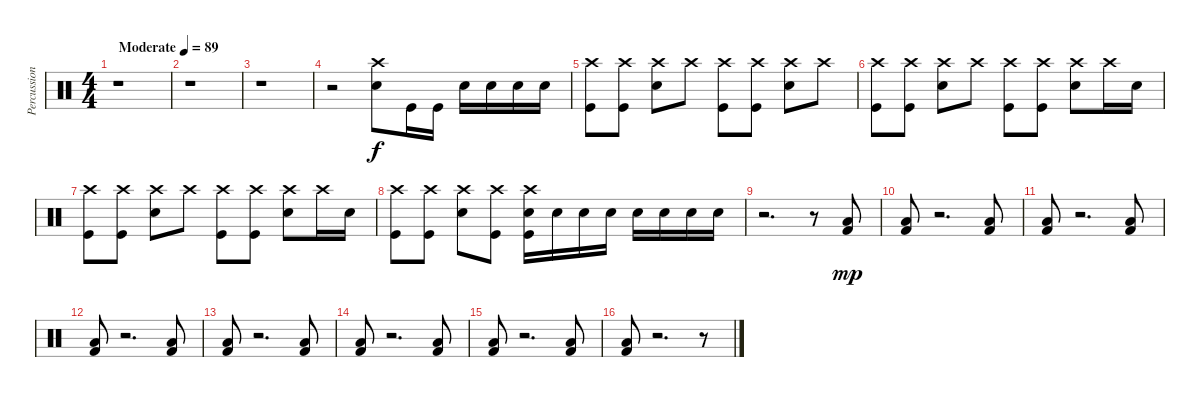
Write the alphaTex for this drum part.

\track ("Percussion" "Percussion") {instrument percussion}
\staff {score}
\articulation defaults
\ts (4 4)
\tempo (89 "Moderate")
\clef neutral
\ks c
r.1{dy f} |
r.1 |
r.1 |
r.2 ("Crash high (hit)" "Electric Snare (hit)").8 "Kick (hit)".16 "Kick (hit)".16 "Electric Snare (hit)".16 "Electric Snare (hit)".16 "Electric Snare (hit)".16 "Electric Snare (hit)".16 |
("Crash high (hit)" "Kick (hit)").8 ("Crash high (hit)" "Kick (hit)").8 ("Crash high (hit)" "Electric Snare (hit)").8 "Crash high (hit)".8 ("Crash high (hit)" "Kick (hit)").8 ("Crash high (hit)" "Kick (hit)").8 ("Crash high (hit)" "Electric Snare (hit)").8 "Crash high (hit)".8 |
("Crash high (hit)" "Kick (hit)").8 ("Crash high (hit)" "Kick (hit)").8 ("Crash high (hit)" "Electric Snare (hit)").8 "Crash high (hit)".8 ("Crash high (hit)" "Kick (hit)").8 ("Crash high (hit)" "Kick (hit)").8 ("Crash high (hit)" "Electric Snare (hit)").8 "Crash high (hit)".16 "Electric Snare (hit)".16 |
("Crash high (hit)" "Kick (hit)").8 ("Crash high (hit)" "Kick (hit)").8 ("Crash high (hit)" "Electric Snare (hit)").8 "Crash high (hit)".8 ("Crash high (hit)" "Kick (hit)").8 ("Crash high (hit)" "Kick (hit)").8 ("Crash high (hit)" "Electric Snare (hit)").8 "Crash high (hit)".16 "Electric Snare (hit)".16 |
("Crash high (hit)" "Kick (hit)").8 ("Crash high (hit)" "Kick (hit)").8 ("Crash high (hit)" "Electric Snare (hit)").8 ("Crash high (hit)" "Kick (hit)").8 ("Crash high (hit)" "Electric Snare (hit)" "Kick (hit)").16 "Electric Snare (hit)".16 "Electric Snare (hit)".16 "Electric Snare (hit)".16 "Electric Snare (hit)".16 "Electric Snare (hit)".16 "Electric Snare (hit)".16 "Electric Snare (hit)".16 |
r.2{d} r.8 ("Low Floor Tom (hit)" "Kick (hit) 2").8{dy mp} |
("Low Floor Tom (hit)" "Kick (hit) 2").8 r.2{d} ("Low Floor Tom (hit)" "Kick (hit) 2").8 |
("Low Floor Tom (hit)" "Kick (hit) 2").8 r.2{d} ("Low Floor Tom (hit)" "Kick (hit) 2").8 |
("Low Floor Tom (hit)" "Kick (hit) 2").8 r.2{d} ("Low Floor Tom (hit)" "Kick (hit) 2").8 |
("Low Floor Tom (hit)" "Kick (hit) 2").8 r.2{d} ("Low Floor Tom (hit)" "Kick (hit) 2").8 |
("Low Floor Tom (hit)" "Kick (hit) 2").8 r.2{d} ("Low Floor Tom (hit)" "Kick (hit) 2").8 |
("Low Floor Tom (hit)" "Kick (hit) 2").8 r.2{d} ("Low Floor Tom (hit)" "Kick (hit) 2").8 |
("Low Floor Tom (hit)" "Kick (hit) 2").8 r.2{d} r.8
